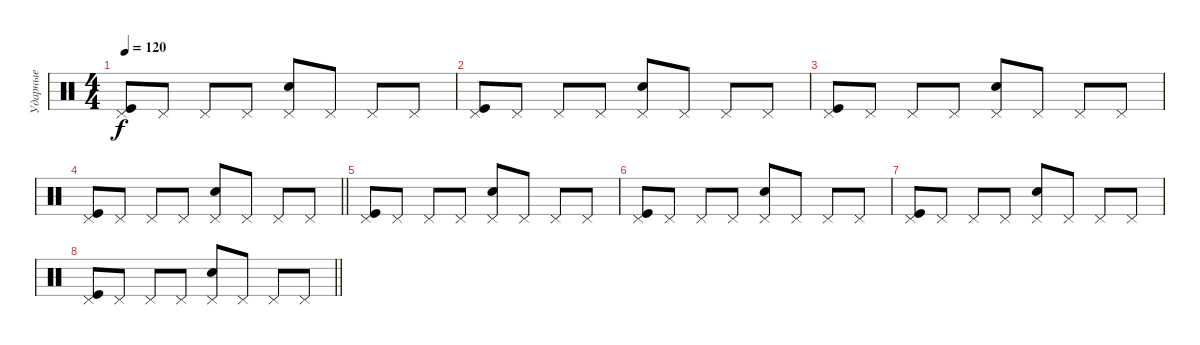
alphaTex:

\track ("Ударные" "Ударные") {instrument percussion}
\staff {score}
\articulation defaults
\ts (4 4)
\tempo 120
\clef neutral
\ks c
("Kick (hit)" "Pedal Hi-Hat (hit)").8{dy f} "Pedal Hi-Hat (hit)".8 "Pedal Hi-Hat (hit)".8 "Pedal Hi-Hat (hit)".8 ("Snare (hit) 2" "Pedal Hi-Hat (hit)").8 "Pedal Hi-Hat (hit)".8 "Pedal Hi-Hat (hit)".8 "Pedal Hi-Hat (hit)".8 |
("Kick (hit)" "Pedal Hi-Hat (hit)").8 "Pedal Hi-Hat (hit)".8 "Pedal Hi-Hat (hit)".8 "Pedal Hi-Hat (hit)".8 ("Snare (hit) 2" "Pedal Hi-Hat (hit)").8 "Pedal Hi-Hat (hit)".8 "Pedal Hi-Hat (hit)".8 "Pedal Hi-Hat (hit)".8 |
("Kick (hit)" "Pedal Hi-Hat (hit)").8 "Pedal Hi-Hat (hit)".8 "Pedal Hi-Hat (hit)".8 "Pedal Hi-Hat (hit)".8 ("Snare (hit) 2" "Pedal Hi-Hat (hit)").8 "Pedal Hi-Hat (hit)".8 "Pedal Hi-Hat (hit)".8 "Pedal Hi-Hat (hit)".8 |
\barLineRight lightlight
("Kick (hit)" "Pedal Hi-Hat (hit)").8 "Pedal Hi-Hat (hit)".8 "Pedal Hi-Hat (hit)".8 "Pedal Hi-Hat (hit)".8 ("Snare (hit) 2" "Pedal Hi-Hat (hit)").8 "Pedal Hi-Hat (hit)".8 "Pedal Hi-Hat (hit)".8 "Pedal Hi-Hat (hit)".8 |
("Kick (hit)" "Pedal Hi-Hat (hit)").8 "Pedal Hi-Hat (hit)".8 "Pedal Hi-Hat (hit)".8 "Pedal Hi-Hat (hit)".8 ("Snare (hit) 2" "Pedal Hi-Hat (hit)").8 "Pedal Hi-Hat (hit)".8 "Pedal Hi-Hat (hit)".8 "Pedal Hi-Hat (hit)".8 |
("Kick (hit)" "Pedal Hi-Hat (hit)").8 "Pedal Hi-Hat (hit)".8 "Pedal Hi-Hat (hit)".8 "Pedal Hi-Hat (hit)".8 ("Snare (hit) 2" "Pedal Hi-Hat (hit)").8 "Pedal Hi-Hat (hit)".8 "Pedal Hi-Hat (hit)".8 "Pedal Hi-Hat (hit)".8 |
("Kick (hit)" "Pedal Hi-Hat (hit)").8 "Pedal Hi-Hat (hit)".8 "Pedal Hi-Hat (hit)".8 "Pedal Hi-Hat (hit)".8 ("Snare (hit) 2" "Pedal Hi-Hat (hit)").8 "Pedal Hi-Hat (hit)".8 "Pedal Hi-Hat (hit)".8 "Pedal Hi-Hat (hit)".8 |
\barLineRight lightlight
("Kick (hit)" "Pedal Hi-Hat (hit)").8 "Pedal Hi-Hat (hit)".8 "Pedal Hi-Hat (hit)".8 "Pedal Hi-Hat (hit)".8 ("Snare (hit) 2" "Pedal Hi-Hat (hit)").8 "Pedal Hi-Hat (hit)".8 "Pedal Hi-Hat (hit)".8 "Pedal Hi-Hat (hit)".8
